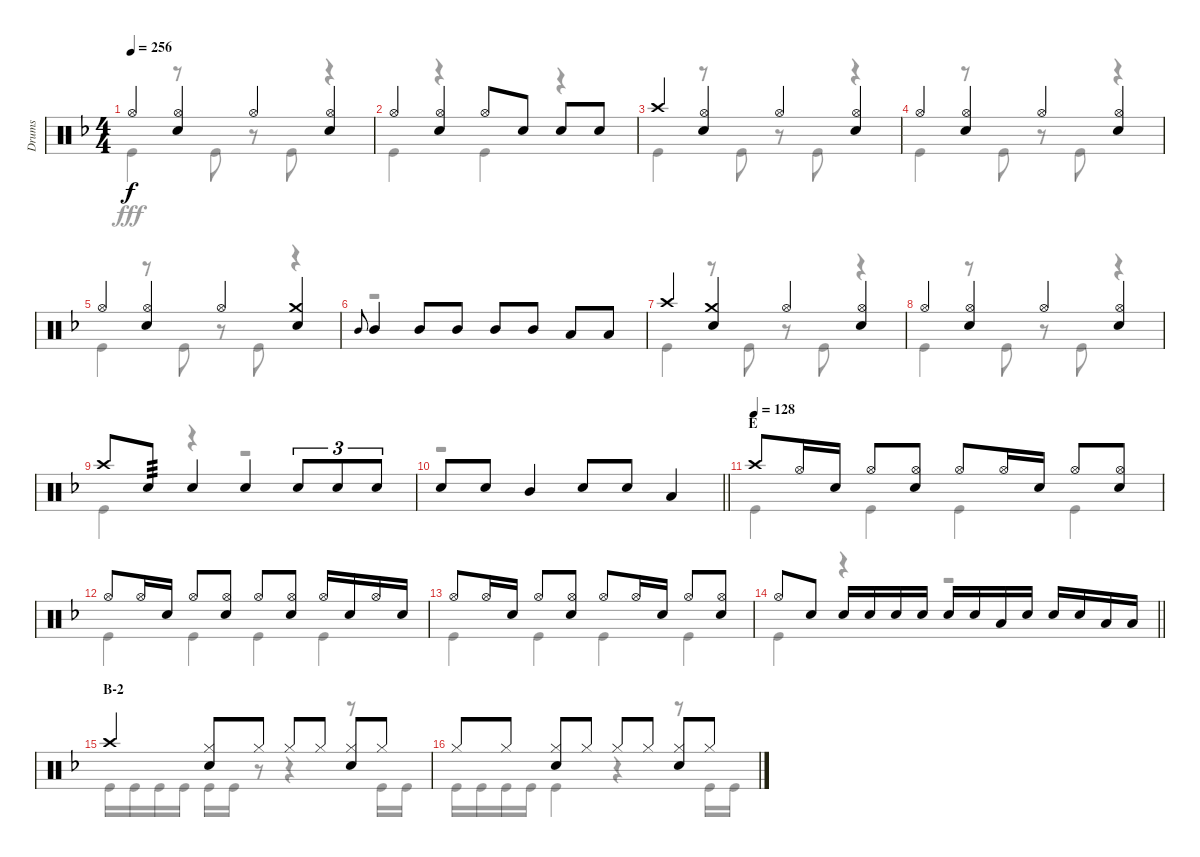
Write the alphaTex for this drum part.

\track ("Drums" "Drums") {instrument percussion}
\staff {score}
\articulation defaults
\voice
\ts (4 4)
\tempo 256
\clef neutral
\ks f "Hi-Hat (open)".4{dy f}
("Hi-Hat (open)" "Snare (hit) 2").4 "Hi-Hat (open)".4 ("Hi-Hat (open)" "Snare (hit) 2").4 |
"Hi-Hat (open)".4 ("Hi-Hat (open)" "Snare (hit) 2").4 "Hi-Hat (open)".8 "Snare (hit) 2".8 "Snare (hit) 2".8 "Snare (hit) 2".8 |
"Crash high (hit)".4 ("Hi-Hat (open)" "Snare (hit) 2").4 "Hi-Hat (open)".4 ("Hi-Hat (open)" "Snare (hit) 2").4 |
"Hi-Hat (open)".4 ("Hi-Hat (open)" "Snare (hit) 2").4 "Hi-Hat (open)".4 ("Hi-Hat (open)" "Snare (hit) 2").4 |
"Hi-Hat (open)".4 ("Hi-Hat (open)" "Snare (hit) 2").4 "Hi-Hat (open)".4 ("Crash medium (hit)" "Snare (hit) 2").4 |
"Mid Tom (hit)".8{gr onbeat} "Mid Tom (hit)".4 "Mid Tom (hit)".8 "Mid Tom (hit)".8 "Mid Tom (hit)".8 "Mid Tom (hit)".8 "Low Tom (hit)".8 "Low Tom (hit)".8 |
"Crash high (hit)".4 ("Crash medium (hit)" "Snare (hit) 2").4 "Hi-Hat (open)".4 ("Hi-Hat (open)" "Snare (hit) 2").4 |
"Hi-Hat (open)".4 ("Hi-Hat (open)" "Snare (hit) 2").4 "Hi-Hat (open)".4 ("Hi-Hat (open)" "Snare (hit) 2").4 |
"Crash high (hit)".8 "Snare (hit) 2".8{tp 3} "Snare (hit) 2".4 "Snare (hit) 2".4 "Snare (hit) 2".8{tu (3 2)} "Snare (hit) 2".8{tu (3 2)} "Snare (hit) 2".8{tu (3 2)} |
\barLineRight lightlight "Snare (hit) 2".8 "Snare (hit) 2".8 "Mid Tom (hit)".4 "Snare (hit) 2".8 "Snare (hit) 2".8 "Low Tom (hit)".4
|
\section ("" "E")
\tempo (128)
"Crash high (hit)".8 "Hi-Hat (open)".16 "Snare (hit) 2".16 "Hi-Hat (open)".8 ("Hi-Hat (open)" "Snare (hit) 2").8 "Hi-Hat (open)".8 "Hi-Hat (open)".16 "Snare (hit) 2".16 "Hi-Hat (open)".8 ("Hi-Hat (open)" "Snare (hit) 2").8 |
"Hi-Hat (open)".8 "Hi-Hat (open)".16 "Snare (hit) 2".16 "Hi-Hat (open)".8 ("Hi-Hat (open)" "Snare (hit) 2").8 "Hi-Hat (open)".8 ("Hi-Hat (open)" "Snare (hit) 2").8 "Hi-Hat (open)".16 "Snare (hit) 2".16 "Hi-Hat (open)".16 "Snare (hit) 2".16 |
"Hi-Hat (open)".8 "Hi-Hat (open)".16 "Snare (hit) 2".16 "Hi-Hat (open)".8 ("Hi-Hat (open)" "Snare (hit) 2").8 "Hi-Hat (open)".8 "Hi-Hat (open)".16 "Snare (hit) 2".16 "Hi-Hat (open)".8 ("Hi-Hat (open)" "Snare (hit) 2").8 |
\barLineRight lightlight "Hi-Hat (open)".8 "Snare (hit) 2".8 "Snare (hit) 2".16 "Snare (hit) 2".16 "Snare (hit) 2".16 "Snare (hit) 2".16 "Snare (hit) 2".16 "Snare (hit) 2".16 "Low Tom (hit)".16 "Snare (hit) 2".16 "Snare (hit) 2".16 "Snare (hit) 2".16 "Low Tom (hit)".16 "Low Tom (hit)".16
|
\section ("" "B-2")
"Crash high (hit)".4 ("Hi-Hat (closed)" "Snare (hit) 2").8 "Hi-Hat (closed)".8 "Hi-Hat (closed)".8 "Hi-Hat (closed)".8 ("Hi-Hat (closed)" "Snare (hit) 2").8 "Hi-Hat (closed)".8 |
"Hi-Hat (closed)".8 "Hi-Hat (closed)".8 ("Hi-Hat (closed)" "Snare (hit) 2").8 "Hi-Hat (closed)".8 "Hi-Hat (closed)".8 "Hi-Hat (closed)".8 ("Hi-Hat (closed)" "Snare (hit) 2").8 "Hi-Hat (closed)".8
\voice
\clef neutral
\ottava regular
\simile none
\ks f "Kick (hit)".4{dy fff}
r.8 "Kick (hit)".8 r.8 "Kick (hit)".8 r.4 |
"Kick (hit)".4 r.4 "Kick (hit)".4 r.4 |
"Kick (hit)".4 r.8 "Kick (hit)".8 r.8 "Kick (hit)".8 r.4 |
"Kick (hit)".4 r.8 "Kick (hit)".8 r.8 "Kick (hit)".8 r.4 |
"Kick (hit)".4 r.8 "Kick (hit)".8 r.8 "Kick (hit)".8 r.4 |
r.1 |
"Kick (hit)".4 r.8 "Kick (hit)".8 r.8 "Kick (hit)".8 r.4 |
"Kick (hit)".4 r.8 "Kick (hit)".8 r.8 "Kick (hit)".8 r.4 |
"Kick (hit)".4 r.4 r.2 |
\barLineRight lightlight
r.1 |
"Kick (hit)".4 "Kick (hit)".4 "Kick (hit)".4 "Kick (hit)".4 |
"Kick (hit)".4 "Kick (hit)".4 "Kick (hit)".4 "Kick (hit)".4 |
"Kick (hit)".4 "Kick (hit)".4 "Kick (hit)".4 "Kick (hit)".4 |
\barLineRight lightlight "Kick (hit)".4
r.4 r.2 |
"Kick (hit)".16 "Kick (hit)".16 "Kick (hit)".16 "Kick (hit)".16 "Kick (hit)".16 "Kick (hit)".16 r.8 r.4 r.8 "Kick (hit)".16 "Kick (hit)".16 |
"Kick (hit)".16 "Kick (hit)".16 "Kick (hit)".16 "Kick (hit)".16 "Kick (hit)".4 r.4 r.8 "Kick (hit)".16 "Kick (hit)".16
